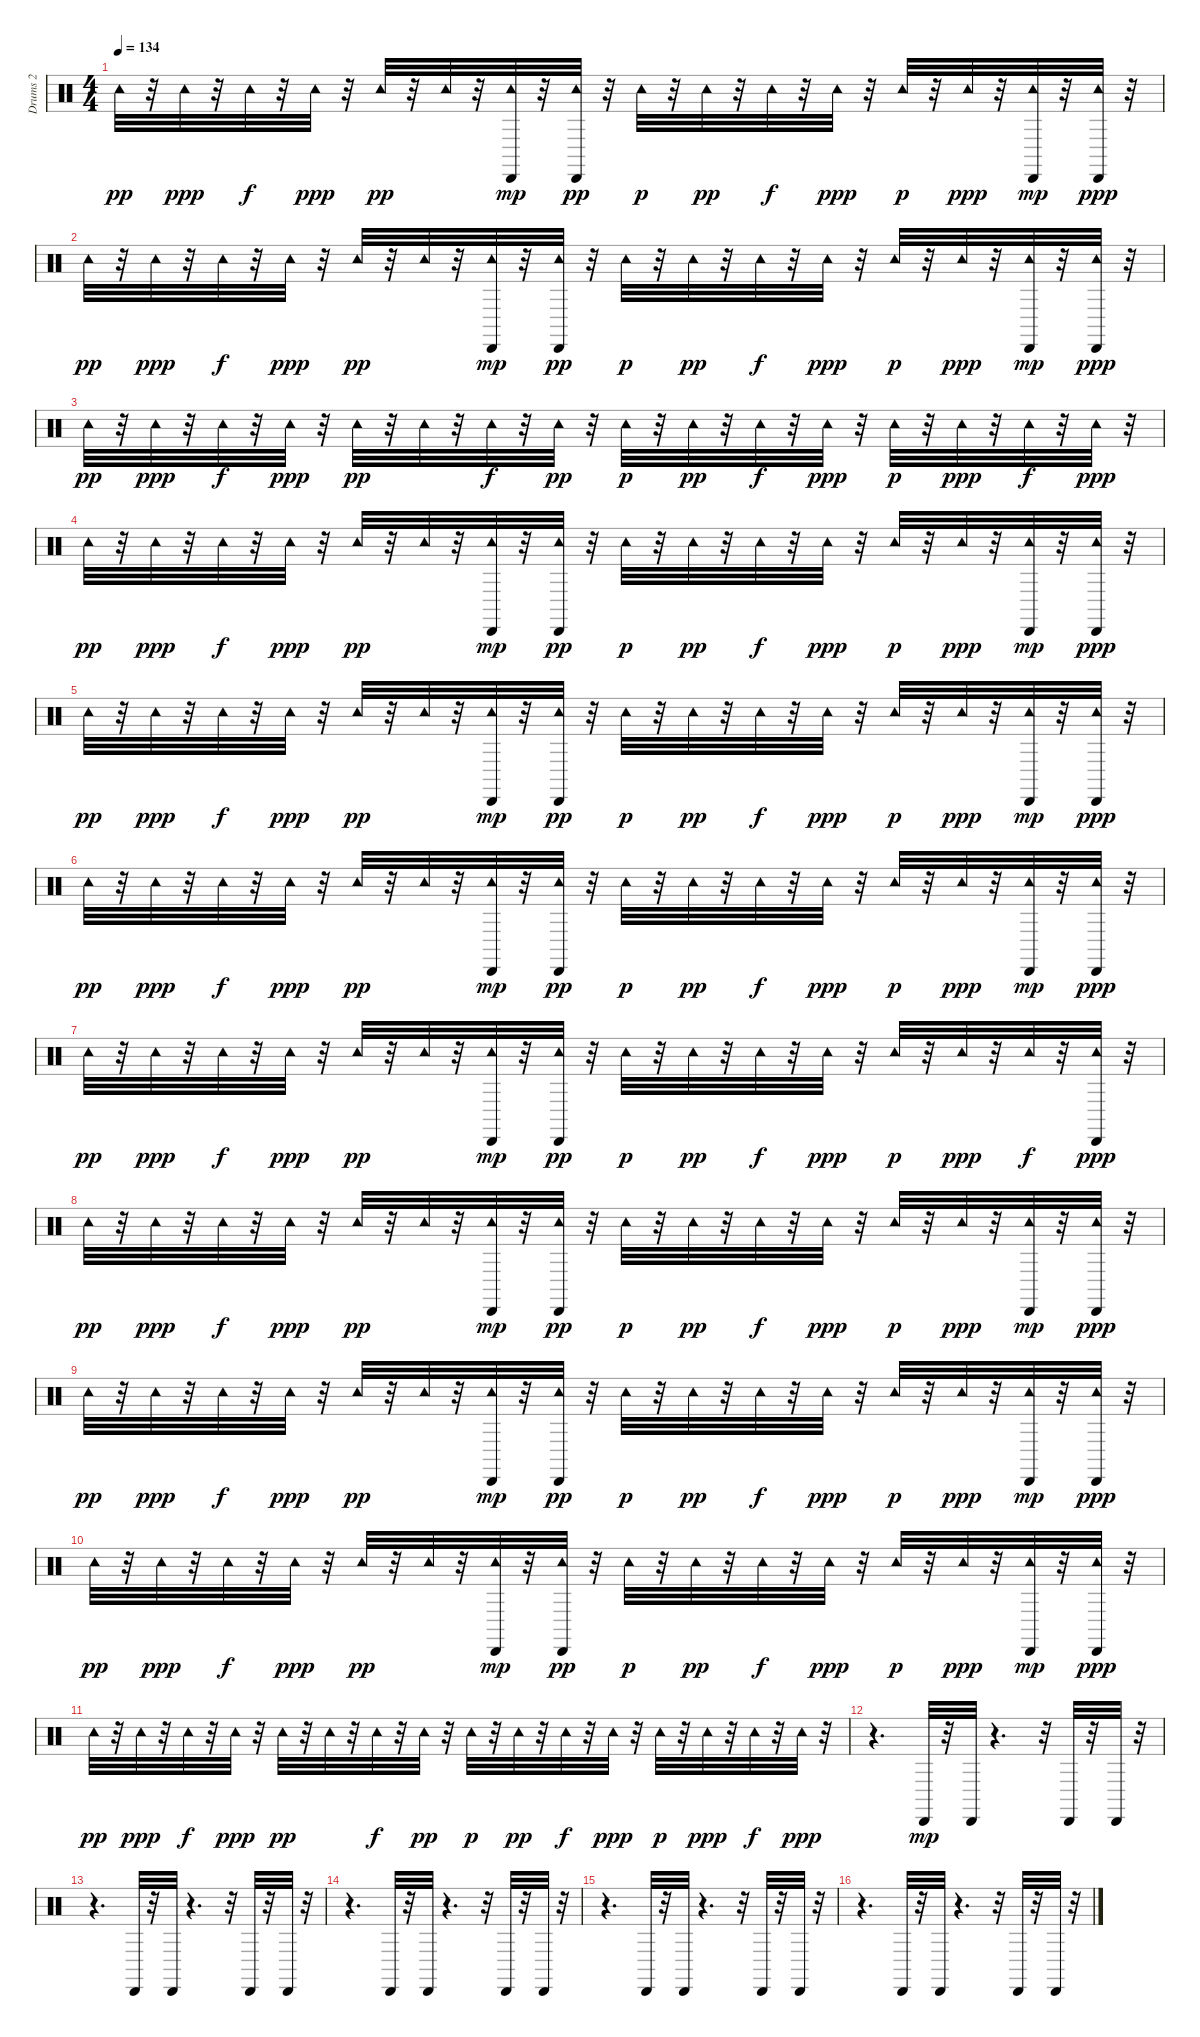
\track ("Drums 2" "Drums 2") {instrument percussion}
\staff {score}
\articulation defaults
\ts (4 4)
\tempo 134
\clef neutral
\ks c "Tambourine (hit)".32{dy pp}
r.32 "Tambourine (hit)".32{dy ppp} r.32 "Tambourine (hit)".32{dy f} r.32 "Tambourine (hit)".32{dy ppp} r.32 "Tambourine (hit)".32{dy pp} r.32 "Tambourine (hit)".32 r.32 ("Cabasa (hit)" "Tambourine (hit)").32{dy mp} r.32 ("Cabasa (hit)" "Tambourine (hit)").32{dy pp} r.32 "Tambourine (hit)".32{dy p} r.32 "Tambourine (hit)".32{dy pp} r.32 "Tambourine (hit)".32{dy f} r.32 "Tambourine (hit)".32{dy ppp} r.32 "Tambourine (hit)".32{dy p} r.32 "Tambourine (hit)".32{dy ppp} r.32 ("Cabasa (hit)" "Tambourine (hit)").32{dy mp} r.32 ("Cabasa (hit)" "Tambourine (hit)").32{dy ppp} r.32 |
"Tambourine (hit)".32{dy pp} r.32 "Tambourine (hit)".32{dy ppp} r.32 "Tambourine (hit)".32{dy f} r.32 "Tambourine (hit)".32{dy ppp} r.32 "Tambourine (hit)".32{dy pp} r.32 "Tambourine (hit)".32 r.32 ("Cabasa (hit)" "Tambourine (hit)").32{dy mp} r.32 ("Cabasa (hit)" "Tambourine (hit)").32{dy pp} r.32 "Tambourine (hit)".32{dy p} r.32 "Tambourine (hit)".32{dy pp} r.32 "Tambourine (hit)".32{dy f} r.32 "Tambourine (hit)".32{dy ppp} r.32 "Tambourine (hit)".32{dy p} r.32 "Tambourine (hit)".32{dy ppp} r.32 ("Cabasa (hit)" "Tambourine (hit)").32{dy mp} r.32 ("Cabasa (hit)" "Tambourine (hit)").32{dy ppp} r.32 |
"Tambourine (hit)".32{dy pp} r.32 "Tambourine (hit)".32{dy ppp} r.32 "Tambourine (hit)".32{dy f} r.32 "Tambourine (hit)".32{dy ppp} r.32 "Tambourine (hit)".32{dy pp} r.32 "Tambourine (hit)".32 r.32 "Tambourine (hit)".32{dy f} r.32 "Tambourine (hit)".32{dy pp} r.32 "Tambourine (hit)".32{dy p} r.32 "Tambourine (hit)".32{dy pp} r.32 "Tambourine (hit)".32{dy f} r.32 "Tambourine (hit)".32{dy ppp} r.32 "Tambourine (hit)".32{dy p} r.32 "Tambourine (hit)".32{dy ppp} r.32 "Tambourine (hit)".32{dy f} r.32 "Tambourine (hit)".32{dy ppp} r.32 |
"Tambourine (hit)".32{dy pp} r.32 "Tambourine (hit)".32{dy ppp} r.32 "Tambourine (hit)".32{dy f} r.32 "Tambourine (hit)".32{dy ppp} r.32 "Tambourine (hit)".32{dy pp} r.32 "Tambourine (hit)".32 r.32 ("Cabasa (hit)" "Tambourine (hit)").32{dy mp} r.32 ("Cabasa (hit)" "Tambourine (hit)").32{dy pp} r.32 "Tambourine (hit)".32{dy p} r.32 "Tambourine (hit)".32{dy pp} r.32 "Tambourine (hit)".32{dy f} r.32 "Tambourine (hit)".32{dy ppp} r.32 "Tambourine (hit)".32{dy p} r.32 "Tambourine (hit)".32{dy ppp} r.32 ("Cabasa (hit)" "Tambourine (hit)").32{dy mp} r.32 ("Cabasa (hit)" "Tambourine (hit)").32{dy ppp} r.32 |
"Tambourine (hit)".32{dy pp} r.32 "Tambourine (hit)".32{dy ppp} r.32 "Tambourine (hit)".32{dy f} r.32 "Tambourine (hit)".32{dy ppp} r.32 "Tambourine (hit)".32{dy pp} r.32 "Tambourine (hit)".32 r.32 ("Cabasa (hit)" "Tambourine (hit)").32{dy mp} r.32 ("Cabasa (hit)" "Tambourine (hit)").32{dy pp} r.32 "Tambourine (hit)".32{dy p} r.32 "Tambourine (hit)".32{dy pp} r.32 "Tambourine (hit)".32{dy f} r.32 "Tambourine (hit)".32{dy ppp} r.32 "Tambourine (hit)".32{dy p} r.32 "Tambourine (hit)".32{dy ppp} r.32 ("Cabasa (hit)" "Tambourine (hit)").32{dy mp} r.32 ("Cabasa (hit)" "Tambourine (hit)").32{dy ppp} r.32 |
"Tambourine (hit)".32{dy pp} r.32 "Tambourine (hit)".32{dy ppp} r.32 "Tambourine (hit)".32{dy f} r.32 "Tambourine (hit)".32{dy ppp} r.32 "Tambourine (hit)".32{dy pp} r.32 "Tambourine (hit)".32 r.32 ("Cabasa (hit)" "Tambourine (hit)").32{dy mp} r.32 ("Cabasa (hit)" "Tambourine (hit)").32{dy pp} r.32 "Tambourine (hit)".32{dy p} r.32 "Tambourine (hit)".32{dy pp} r.32 "Tambourine (hit)".32{dy f} r.32 "Tambourine (hit)".32{dy ppp} r.32 "Tambourine (hit)".32{dy p} r.32 "Tambourine (hit)".32{dy ppp} r.32 ("Cabasa (hit)" "Tambourine (hit)").32{dy mp} r.32 ("Cabasa (hit)" "Tambourine (hit)").32{dy ppp} r.32 |
"Tambourine (hit)".32{dy pp} r.32 "Tambourine (hit)".32{dy ppp} r.32 "Tambourine (hit)".32{dy f} r.32 "Tambourine (hit)".32{dy ppp} r.32 "Tambourine (hit)".32{dy pp} r.32 "Tambourine (hit)".32 r.32 ("Cabasa (hit)" "Tambourine (hit)").32{dy mp} r.32 ("Cabasa (hit)" "Tambourine (hit)").32{dy pp} r.32 "Tambourine (hit)".32{dy p} r.32 "Tambourine (hit)".32{dy pp} r.32 "Tambourine (hit)".32{dy f} r.32 "Tambourine (hit)".32{dy ppp} r.32 "Tambourine (hit)".32{dy p} r.32 "Tambourine (hit)".32{dy ppp} r.32 "Tambourine (hit)".32{dy f} r.32 ("Cabasa (hit)" "Tambourine (hit)").32{dy ppp} r.32 |
"Tambourine (hit)".32{dy pp} r.32 "Tambourine (hit)".32{dy ppp} r.32 "Tambourine (hit)".32{dy f} r.32 "Tambourine (hit)".32{dy ppp} r.32 "Tambourine (hit)".32{dy pp} r.32 "Tambourine (hit)".32 r.32 ("Cabasa (hit)" "Tambourine (hit)").32{dy mp} r.32 ("Cabasa (hit)" "Tambourine (hit)").32{dy pp} r.32 "Tambourine (hit)".32{dy p} r.32 "Tambourine (hit)".32{dy pp} r.32 "Tambourine (hit)".32{dy f} r.32 "Tambourine (hit)".32{dy ppp} r.32 "Tambourine (hit)".32{dy p} r.32 "Tambourine (hit)".32{dy ppp} r.32 ("Cabasa (hit)" "Tambourine (hit)").32{dy mp} r.32 ("Cabasa (hit)" "Tambourine (hit)").32{dy ppp} r.32 |
"Tambourine (hit)".32{dy pp} r.32 "Tambourine (hit)".32{dy ppp} r.32 "Tambourine (hit)".32{dy f} r.32 "Tambourine (hit)".32{dy ppp} r.32 "Tambourine (hit)".32{dy pp} r.32 "Tambourine (hit)".32 r.32 ("Cabasa (hit)" "Tambourine (hit)").32{dy mp} r.32 ("Cabasa (hit)" "Tambourine (hit)").32{dy pp} r.32 "Tambourine (hit)".32{dy p} r.32 "Tambourine (hit)".32{dy pp} r.32 "Tambourine (hit)".32{dy f} r.32 "Tambourine (hit)".32{dy ppp} r.32 "Tambourine (hit)".32{dy p} r.32 "Tambourine (hit)".32{dy ppp} r.32 ("Cabasa (hit)" "Tambourine (hit)").32{dy mp} r.32 ("Cabasa (hit)" "Tambourine (hit)").32{dy ppp} r.32 |
"Tambourine (hit)".32{dy pp} r.32 "Tambourine (hit)".32{dy ppp} r.32 "Tambourine (hit)".32{dy f} r.32 "Tambourine (hit)".32{dy ppp} r.32 "Tambourine (hit)".32{dy pp} r.32 "Tambourine (hit)".32 r.32 ("Cabasa (hit)" "Tambourine (hit)").32{dy mp} r.32 ("Cabasa (hit)" "Tambourine (hit)").32{dy pp} r.32 "Tambourine (hit)".32{dy p} r.32 "Tambourine (hit)".32{dy pp} r.32 "Tambourine (hit)".32{dy f} r.32 "Tambourine (hit)".32{dy ppp} r.32 "Tambourine (hit)".32{dy p} r.32 "Tambourine (hit)".32{dy ppp} r.32 ("Cabasa (hit)" "Tambourine (hit)").32{dy mp} r.32 ("Cabasa (hit)" "Tambourine (hit)").32{dy ppp} r.32 |
"Tambourine (hit)".32{dy pp} r.32 "Tambourine (hit)".32{dy ppp} r.32 "Tambourine (hit)".32{dy f} r.32 "Tambourine (hit)".32{dy ppp} r.32 "Tambourine (hit)".32{dy pp} r.32 "Tambourine (hit)".32 r.32 "Tambourine (hit)".32{dy f} r.32 "Tambourine (hit)".32{dy pp} r.32 "Tambourine (hit)".32{dy p} r.32 "Tambourine (hit)".32{dy pp} r.32 "Tambourine (hit)".32{dy f} r.32 "Tambourine (hit)".32{dy ppp} r.32 "Tambourine (hit)".32{dy p} r.32 "Tambourine (hit)".32{dy ppp} r.32 "Tambourine (hit)".32{dy f} r.32 "Tambourine (hit)".32{dy ppp} r.32 |
r.4{d} "Cabasa (hit)".32{dy mp} r.32 "Cabasa (hit)".32 r.4{d} r.32 "Cabasa (hit)".32 r.32 "Cabasa (hit)".32 r.32 |
r.4{d} "Cabasa (hit)".32 r.32 "Cabasa (hit)".32 r.4{d} r.32 "Cabasa (hit)".32 r.32 "Cabasa (hit)".32 r.32 |
r.4{d} "Cabasa (hit)".32 r.32 "Cabasa (hit)".32 r.4{d} r.32 "Cabasa (hit)".32 r.32 "Cabasa (hit)".32 r.32 |
r.4{d} "Cabasa (hit)".32 r.32 "Cabasa (hit)".32 r.4{d} r.32 "Cabasa (hit)".32 r.32 "Cabasa (hit)".32 r.32 |
r.4{d} "Cabasa (hit)".32 r.32 "Cabasa (hit)".32 r.4{d} r.32 "Cabasa (hit)".32 r.32 "Cabasa (hit)".32 r.32
